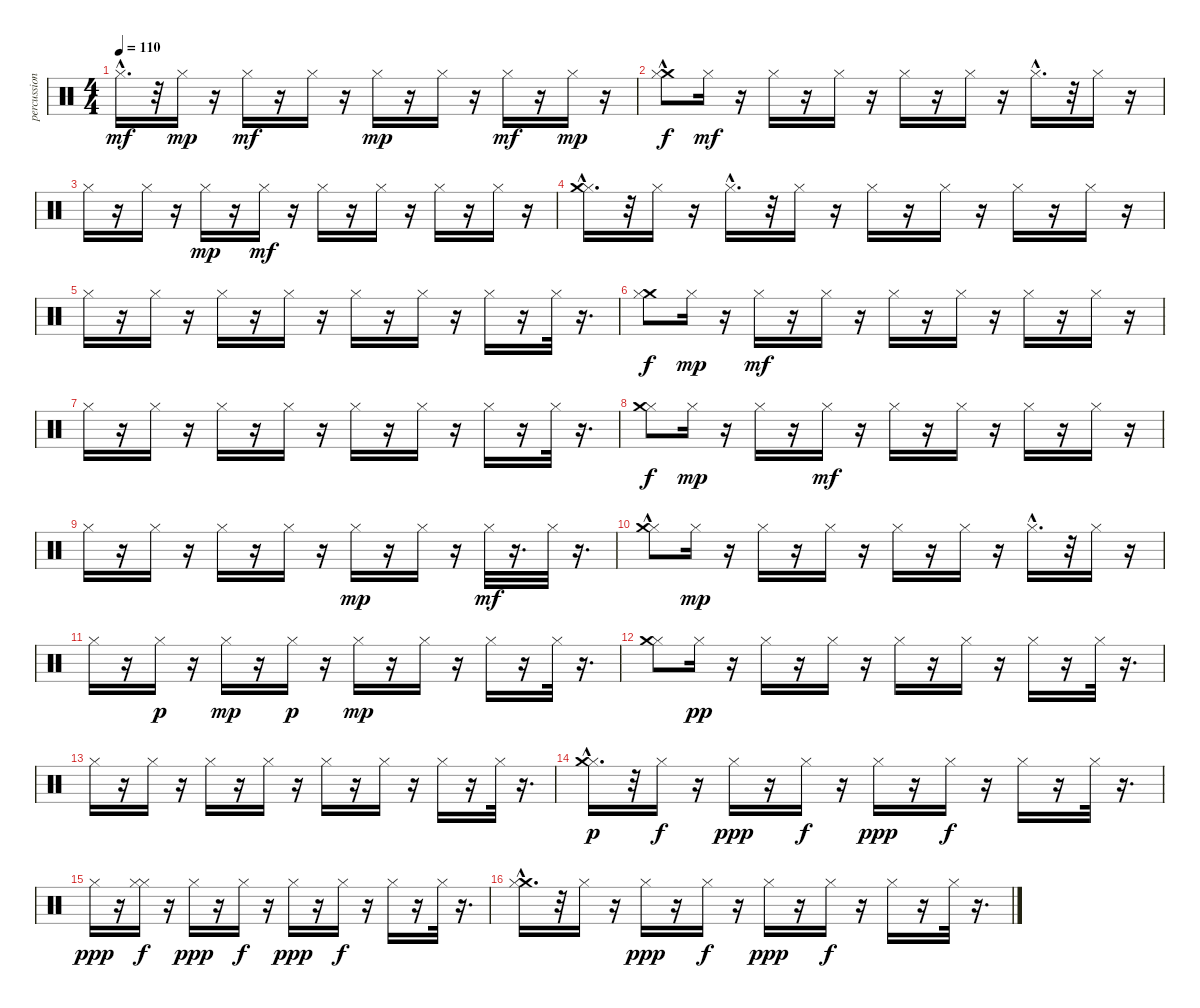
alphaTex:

\track ("percussions 2" "percussion") {instrument percussion}
\staff {score}
\articulation defaults
\ts (4 4)
\tempo 110
\clef neutral
\ks c "Hi-Hat (closed)"{hac}.16{d dy mf}
r.32 "Hi-Hat (closed)".16{dy mp} r.16 "Hi-Hat (closed)".16{dy mf} r.16 "Hi-Hat (closed)".16 r.16 "Hi-Hat (closed)".16{dy mp} r.16 "Hi-Hat (closed)".16 r.16 "Hi-Hat (closed)".16{dy mf} r.16 "Hi-Hat (closed)".16{dy mp} r.16 |
("Crash medium (hit)" "Hi-Hat (closed)"{hac}).8{dy f} "Hi-Hat (closed)".16{dy mf} r.16 "Hi-Hat (closed)".16 r.16 "Hi-Hat (closed)".16 r.16 "Hi-Hat (closed)".16 r.16 "Hi-Hat (closed)".16 r.16 "Hi-Hat (closed)"{hac}.16{d} r.32 "Hi-Hat (closed)".16 r.16 |
"Hi-Hat (closed)".16 r.16 "Hi-Hat (closed)".16 r.16 "Hi-Hat (closed)".16{dy mp} r.16 "Hi-Hat (closed)".16{dy mf} r.16 "Hi-Hat (closed)".16 r.16 "Hi-Hat (closed)".16 r.16 "Hi-Hat (closed)".16 r.16 "Hi-Hat (closed)".16 r.16 |
("Hi-Hat (closed)" "Crash medium (hit)"{hac}).16{d} r.32 "Hi-Hat (closed)".16 r.16 "Hi-Hat (closed)"{hac}.16{d} r.32 "Hi-Hat (closed)".16 r.16 "Hi-Hat (closed)".16 r.16 "Hi-Hat (closed)".16 r.16 "Hi-Hat (closed)".16 r.16 "Hi-Hat (closed)".16 r.16 |
"Hi-Hat (closed)".16 r.16 "Hi-Hat (closed)".16 r.16 "Hi-Hat (closed)".16 r.16 "Hi-Hat (closed)".16 r.16 "Hi-Hat (closed)".16 r.16 "Hi-Hat (closed)".16 r.16 "Hi-Hat (closed)".16 r.16 "Hi-Hat (closed)".32 r.16{d} |
("Crash medium (hit)" "Hi-Hat (closed)").8{dy f} "Hi-Hat (closed)".16{dy mp} r.16 "Hi-Hat (closed)".16{dy mf} r.16 "Hi-Hat (closed)".16 r.16 "Hi-Hat (closed)".16 r.16 "Hi-Hat (closed)".16 r.16 "Hi-Hat (closed)".16 r.16 "Hi-Hat (closed)".16 r.16 |
"Hi-Hat (closed)".16 r.16 "Hi-Hat (closed)".16 r.16 "Hi-Hat (closed)".16 r.16 "Hi-Hat (closed)".16 r.16 "Hi-Hat (closed)".16 r.16 "Hi-Hat (closed)".16 r.16 "Hi-Hat (closed)".16 r.16 "Hi-Hat (closed)".32 r.16{d} |
("Hi-Hat (closed)" "Crash medium (hit)").8{dy f} "Hi-Hat (closed)".16{dy mp} r.16 "Hi-Hat (closed)".16 r.16 "Hi-Hat (closed)".16{dy mf} r.16 "Hi-Hat (closed)".16 r.16 "Hi-Hat (closed)".16 r.16 "Hi-Hat (closed)".16 r.16 "Hi-Hat (closed)".16 r.16 |
"Hi-Hat (closed)".16 r.16 "Hi-Hat (closed)".16 r.16 "Hi-Hat (closed)".16 r.16 "Hi-Hat (closed)".16 r.16 "Hi-Hat (closed)".16{dy mp} r.16 "Hi-Hat (closed)".16 r.16 "Hi-Hat (closed)".32{dy mf} r.16{d} "Hi-Hat (closed)".32 r.16{d} |
("Hi-Hat (closed)"{hac} "Crash medium (hit)").8 "Hi-Hat (closed)".16{dy mp} r.16 "Hi-Hat (closed)".16 r.16 "Hi-Hat (closed)".16 r.16 "Hi-Hat (closed)".16 r.16 "Hi-Hat (closed)".16 r.16 "Hi-Hat (closed)"{hac}.16{d} r.32 "Hi-Hat (closed)".16 r.16 |
"Hi-Hat (closed)".16 r.16 "Hi-Hat (closed)".16{dy p} r.16 "Hi-Hat (closed)".16{dy mp} r.16 "Hi-Hat (closed)".16{dy p} r.16 "Hi-Hat (closed)".16{dy mp} r.16 "Hi-Hat (closed)".16 r.16 "Hi-Hat (closed)".16 r.16 "Hi-Hat (closed)".32 r.16{d} |
("Hi-Hat (closed)" "Crash medium (hit)").8 "Hi-Hat (closed)".16{dy pp} r.16 "Hi-Hat (closed)".16 r.16 "Hi-Hat (closed)".16 r.16 "Hi-Hat (closed)".16 r.16 "Hi-Hat (closed)".16 r.16 "Hi-Hat (closed)".16 r.16 "Hi-Hat (closed)".32 r.16{d} |
"Hi-Hat (closed)".16 r.16 "Hi-Hat (closed)".16 r.16 "Hi-Hat (closed)".16 r.16 "Hi-Hat (closed)".16 r.16 "Hi-Hat (closed)".16 r.16 "Hi-Hat (closed)".16 r.16 "Hi-Hat (closed)".16 r.16 "Hi-Hat (closed)".32 r.16{d} |
("Hi-Hat (closed)" "Crash medium (hit)"{hac}).16{d dy p} r.32 "Hi-Hat (closed)".16{dy f} r.16 "Hi-Hat (closed)".16{dy ppp} r.16 "Hi-Hat (closed)".16{dy f} r.16 "Hi-Hat (closed)".16{dy ppp} r.16 "Hi-Hat (closed)".16{dy f} r.16 "Hi-Hat (closed)".16 r.16 "Hi-Hat (closed)".32 r.16{d} |
"Hi-Hat (closed)".16{dy ppp} r.16 ("Hi-Hat (closed)" "Hi-Hat (closed)").16{dy f} r.16 "Hi-Hat (closed)".16{dy ppp} r.16 "Hi-Hat (closed)".16{dy f} r.16 "Hi-Hat (closed)".16{dy ppp} r.16 "Hi-Hat (closed)".16{dy f} r.16 "Hi-Hat (closed)".16 r.16 "Hi-Hat (closed)".32 r.16{d} |
("Crash medium (hit)"{hac} "Hi-Hat (closed)").16{d} r.32 "Hi-Hat (closed)".16 r.16 "Hi-Hat (closed)".16{dy ppp} r.16 "Hi-Hat (closed)".16{dy f} r.16 "Hi-Hat (closed)".16{dy ppp} r.16 "Hi-Hat (closed)".16{dy f} r.16 "Hi-Hat (closed)".16 r.16 "Hi-Hat (closed)".32 r.16{d}
